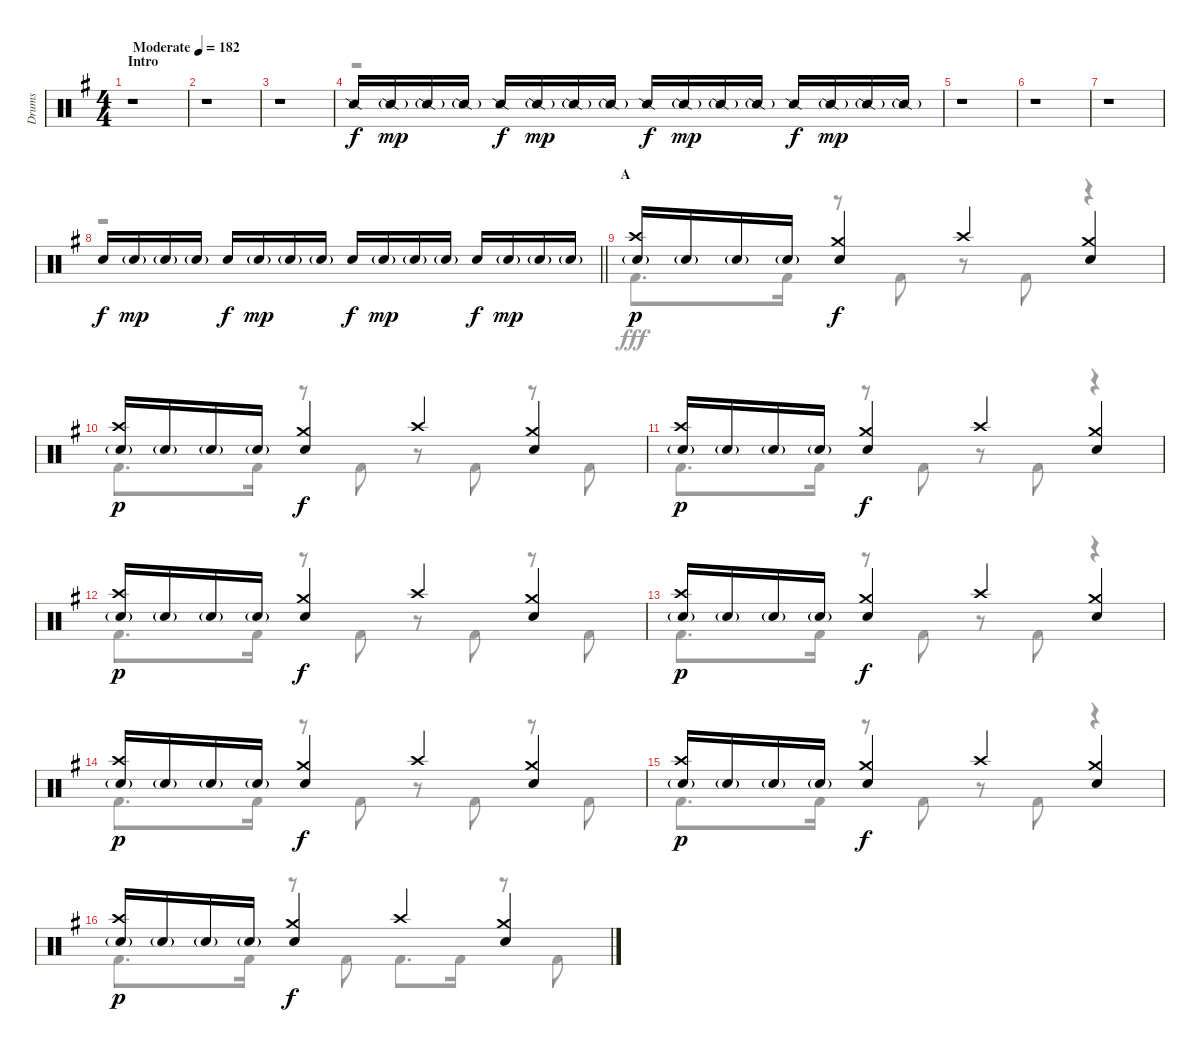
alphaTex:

\track ("Drums" "Drums") {instrument percussion}
\staff {score}
\articulation defaults
\voice
\ts (4 4)
\section ("" "Intro")
\tempo (182 "Moderate")
\clef neutral
\ks g
r.1{dy f} |
r.1 |
r.1 |
"Snare (side stick) 2".16 "Snare (side stick) 2"{g}.16{dy mp} "Snare (side stick) 2"{g}.16 "Snare (side stick) 2"{g}.16 "Snare (side stick) 2".16{dy f} "Snare (side stick) 2"{g}.16{dy mp} "Snare (side stick) 2"{g}.16 "Snare (side stick) 2"{g}.16 "Snare (side stick) 2".16{dy f} "Snare (side stick) 2"{g}.16{dy mp} "Snare (side stick) 2"{g}.16 "Snare (side stick) 2"{g}.16 "Snare (side stick) 2".16{dy f} "Snare (side stick) 2"{g}.16{dy mp} "Snare (side stick) 2"{g}.16 "Snare (side stick) 2"{g}.16 |
r.1 |
r.1 |
r.1 |
\barLineRight lightlight "Snare (hit) 2".16{dy f} "Snare (hit) 2"{g}.16{dy mp} "Snare (hit) 2"{g}.16 "Snare (hit) 2"{g}.16 "Snare (hit) 2".16{dy f} "Snare (hit) 2"{g}.16{dy mp} "Snare (hit) 2"{g}.16 "Snare (hit) 2"{g}.16 "Snare (hit) 2".16{dy f} "Snare (hit) 2"{g}.16{dy mp} "Snare (hit) 2"{g}.16 "Snare (hit) 2"{g}.16 "Snare (hit) 2".16{dy f} "Snare (hit) 2"{g}.16{dy mp} "Snare (hit) 2"{g}.16 "Snare (hit) 2"{g}.16
|
\section ("" "A")
("Crash high (hit)" "Snare (hit) 2"{g}).16{dy p} "Snare (hit) 2"{g}.16 "Snare (hit) 2"{g}.16 "Snare (hit) 2"{g}.16 ("Crash medium (hit)" "Snare (hit) 2").4{dy f} "Crash high (hit)".4 ("Crash medium (hit)" "Snare (hit) 2").4 |
("Crash high (hit)" "Snare (hit) 2"{g}).16{dy p} "Snare (hit) 2"{g}.16 "Snare (hit) 2"{g}.16 "Snare (hit) 2"{g}.16 ("Crash medium (hit)" "Snare (hit) 2").4{dy f} "Crash high (hit)".4 ("Crash medium (hit)" "Snare (hit) 2").4 |
("Crash high (hit)" "Snare (hit) 2"{g}).16{dy p} "Snare (hit) 2"{g}.16 "Snare (hit) 2"{g}.16 "Snare (hit) 2"{g}.16 ("Crash medium (hit)" "Snare (hit) 2").4{dy f} "Crash high (hit)".4 ("Crash medium (hit)" "Snare (hit) 2").4 |
("Crash high (hit)" "Snare (hit) 2"{g}).16{dy p} "Snare (hit) 2"{g}.16 "Snare (hit) 2"{g}.16 "Snare (hit) 2"{g}.16 ("Crash medium (hit)" "Snare (hit) 2").4{dy f} "Crash high (hit)".4 ("Crash medium (hit)" "Snare (hit) 2").4 |
("Crash high (hit)" "Snare (hit) 2"{g}).16{dy p} "Snare (hit) 2"{g}.16 "Snare (hit) 2"{g}.16 "Snare (hit) 2"{g}.16 ("Crash medium (hit)" "Snare (hit) 2").4{dy f} "Crash high (hit)".4 ("Crash medium (hit)" "Snare (hit) 2").4 |
("Crash high (hit)" "Snare (hit) 2"{g}).16{dy p} "Snare (hit) 2"{g}.16 "Snare (hit) 2"{g}.16 "Snare (hit) 2"{g}.16 ("Crash medium (hit)" "Snare (hit) 2").4{dy f} "Crash high (hit)".4 ("Crash medium (hit)" "Snare (hit) 2").4 |
("Crash high (hit)" "Snare (hit) 2"{g}).16{dy p} "Snare (hit) 2"{g}.16 "Snare (hit) 2"{g}.16 "Snare (hit) 2"{g}.16 ("Crash medium (hit)" "Snare (hit) 2").4{dy f} "Crash high (hit)".4 ("Crash medium (hit)" "Snare (hit) 2").4 |
("Crash high (hit)" "Snare (hit) 2"{g}).16{dy p} "Snare (hit) 2"{g}.16 "Snare (hit) 2"{g}.16 "Snare (hit) 2"{g}.16 ("Crash medium (hit)" "Snare (hit) 2").4{dy f} "Crash high (hit)".4 ("Crash medium (hit)" "Snare (hit) 2").4
\voice
\clef neutral
\ottava regular
\simile none
\ks g
r.1{dy fff} |
r.1 |
r.1 |
r.1 |
r.1 |
r.1 |
r.1 |
\barLineRight lightlight
r.1 |
"Kick (hit) 2".8{d} "Kick (hit) 2".16 r.8 "Kick (hit) 2".8 r.8 "Kick (hit) 2".8 r.4 |
"Kick (hit) 2".8{d} "Kick (hit) 2".16 r.8 "Kick (hit) 2".8 r.8 "Kick (hit) 2".8 r.8 "Kick (hit) 2".8 |
"Kick (hit) 2".8{d} "Kick (hit) 2".16 r.8 "Kick (hit) 2".8 r.8 "Kick (hit) 2".8 r.4 |
"Kick (hit) 2".8{d} "Kick (hit) 2".16 r.8 "Kick (hit) 2".8 r.8 "Kick (hit) 2".8 r.8 "Kick (hit) 2".8 |
"Kick (hit) 2".8{d} "Kick (hit) 2".16 r.8 "Kick (hit) 2".8 r.8 "Kick (hit) 2".8 r.4 |
"Kick (hit) 2".8{d} "Kick (hit) 2".16 r.8 "Kick (hit) 2".8 r.8 "Kick (hit) 2".8 r.8 "Kick (hit) 2".8 |
"Kick (hit) 2".8{d} "Kick (hit) 2".16 r.8 "Kick (hit) 2".8 r.8 "Kick (hit) 2".8 r.4 |
"Kick (hit) 2".8{d} "Kick (hit) 2".16 r.8 "Kick (hit) 2".8 "Kick (hit) 2".8{d} "Kick (hit) 2".16 r.8 "Kick (hit) 2".8
